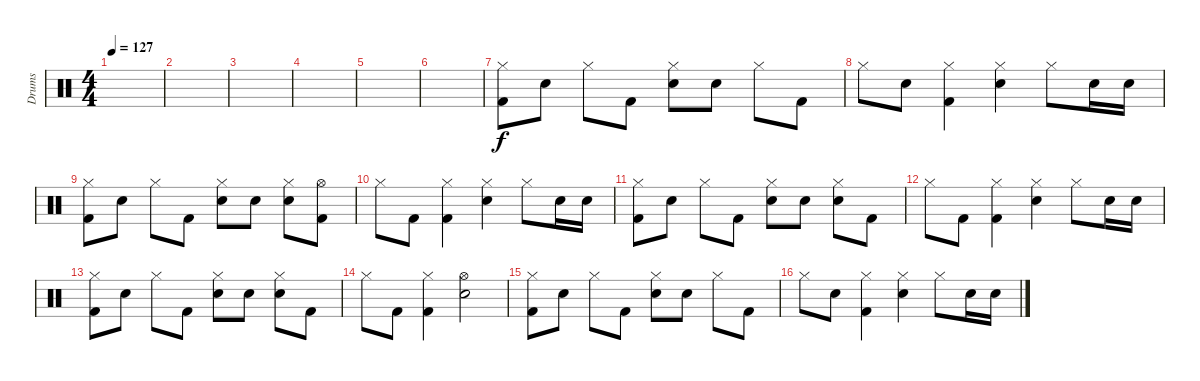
\track ("Drums" "Drums") {instrument percussion}
\staff {score}
\articulation defaults
\ts (4 4)
\tempo 127
\clef neutral
\ks c
|
|
|
|
|
|
("Hi-Hat (closed)" "Kick (hit) 2").8{dy f} "Electric Snare (hit)".8 "Hi-Hat (closed)".8 "Kick (hit) 2".8 ("Hi-Hat (closed)" "Electric Snare (hit)").8 "Electric Snare (hit)".8 "Hi-Hat (closed)".8 "Kick (hit) 2".8 |
"Hi-Hat (closed)".8 "Electric Snare (hit)".8 ("Hi-Hat (closed)" "Kick (hit) 2").4 ("Hi-Hat (closed)" "Electric Snare (hit)").4 "Hi-Hat (closed)".8 "Electric Snare (hit)".16 "Electric Snare (hit)".16 |
("Hi-Hat (closed)" "Kick (hit) 2").8 "Electric Snare (hit)".8 "Hi-Hat (closed)".8 "Kick (hit) 2".8 ("Hi-Hat (closed)" "Electric Snare (hit)").8 "Electric Snare (hit)".8 ("Hi-Hat (closed)" "Electric Snare (hit)").8 ("Hi-Hat (open)" "Kick (hit) 2").8 |
"Hi-Hat (closed)".8 "Kick (hit) 2".8 ("Hi-Hat (closed)" "Kick (hit) 2").4 ("Hi-Hat (closed)" "Electric Snare (hit)").4 "Hi-Hat (closed)".8 "Electric Snare (hit)".16 "Electric Snare (hit)".16 |
("Hi-Hat (closed)" "Kick (hit) 2").8 "Electric Snare (hit)".8 "Hi-Hat (closed)".8 "Kick (hit) 2".8 ("Hi-Hat (closed)" "Electric Snare (hit)").8 "Electric Snare (hit)".8 ("Hi-Hat (closed)" "Electric Snare (hit)").8 "Kick (hit) 2".8 |
"Hi-Hat (closed)".8 "Kick (hit) 2".8 ("Hi-Hat (closed)" "Kick (hit) 2").4 ("Hi-Hat (closed)" "Electric Snare (hit)").4 "Hi-Hat (closed)".8 "Electric Snare (hit)".16 "Electric Snare (hit)".16 |
("Hi-Hat (closed)" "Kick (hit) 2").8 "Electric Snare (hit)".8 "Hi-Hat (closed)".8 "Kick (hit) 2".8 ("Hi-Hat (closed)" "Electric Snare (hit)").8 "Electric Snare (hit)".8 ("Hi-Hat (closed)" "Electric Snare (hit)").8 "Kick (hit) 2".8 |
"Hi-Hat (closed)".8 "Kick (hit) 2".8 ("Hi-Hat (closed)" "Kick (hit) 2").4 ("Hi-Hat (open)" "Electric Snare (hit)").2 |
("Hi-Hat (closed)" "Kick (hit) 2").8 "Electric Snare (hit)".8 "Hi-Hat (closed)".8 "Kick (hit) 2".8 ("Hi-Hat (closed)" "Electric Snare (hit)").8 "Electric Snare (hit)".8 "Hi-Hat (closed)".8 "Kick (hit) 2".8 |
"Hi-Hat (closed)".8 "Electric Snare (hit)".8 ("Hi-Hat (closed)" "Kick (hit) 2").4 ("Hi-Hat (closed)" "Electric Snare (hit)").4 "Hi-Hat (closed)".8 "Electric Snare (hit)".16 "Electric Snare (hit)".16
